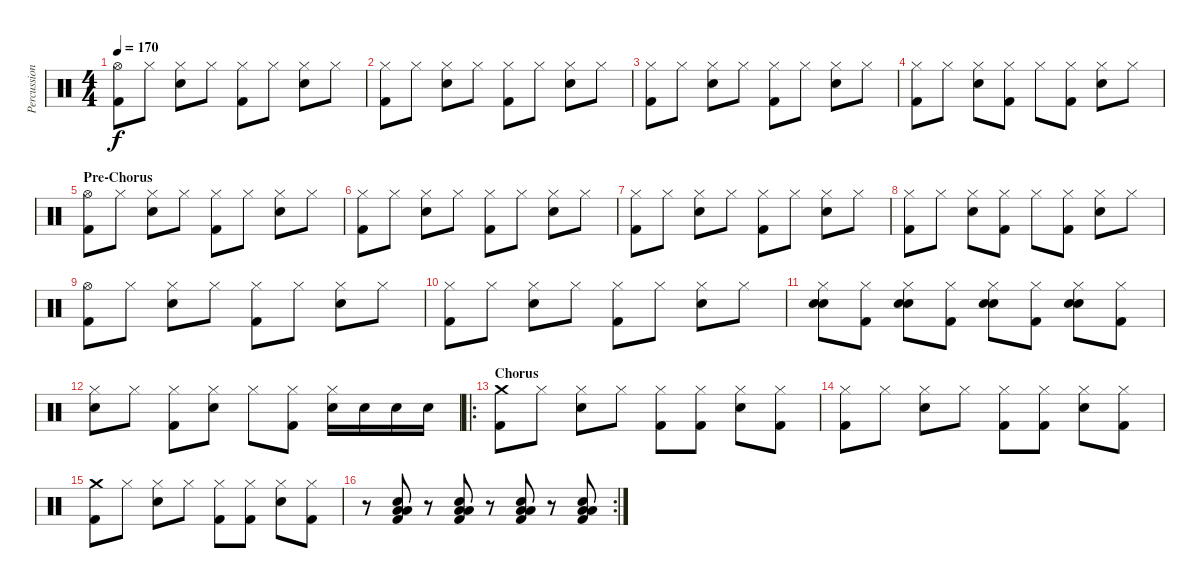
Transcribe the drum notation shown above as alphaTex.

\track ("Percussions" "Percussion") {instrument percussion}
\staff {score}
\articulation defaults
\ts (4 4)
\tempo 170
\clef neutral
\ks c
("Hi-Hat (open)" "Kick (hit) 2").8{dy f} "Hi-Hat (closed)".8 ("Hi-Hat (closed)" "Snare (hit) 2").8 "Hi-Hat (closed)".8 ("Hi-Hat (closed)" "Kick (hit) 2").8 "Hi-Hat (closed)".8 ("Hi-Hat (closed)" "Snare (hit) 2").8 "Hi-Hat (closed)".8 |
("Hi-Hat (closed)" "Kick (hit) 2").8 "Hi-Hat (closed)".8 ("Hi-Hat (closed)" "Snare (hit) 2").8 "Hi-Hat (closed)".8 ("Hi-Hat (closed)" "Kick (hit) 2").8 "Hi-Hat (closed)".8 ("Hi-Hat (closed)" "Snare (hit) 2").8 "Hi-Hat (closed)".8 |
("Hi-Hat (closed)" "Kick (hit) 2").8 "Hi-Hat (closed)".8 ("Hi-Hat (closed)" "Snare (hit) 2").8 "Hi-Hat (closed)".8 ("Hi-Hat (closed)" "Kick (hit) 2").8 "Hi-Hat (closed)".8 ("Hi-Hat (closed)" "Snare (hit) 2").8 "Hi-Hat (closed)".8 |
("Hi-Hat (closed)" "Kick (hit) 2").8 "Hi-Hat (closed)".8 ("Hi-Hat (closed)" "Snare (hit) 2").8 ("Hi-Hat (closed)" "Kick (hit) 2").8 "Hi-Hat (closed)".8 ("Hi-Hat (closed)" "Kick (hit) 2").8 ("Hi-Hat (closed)" "Snare (hit) 2").8 "Hi-Hat (closed)".8 |
\section ("" "Pre-Chorus")
("Hi-Hat (open)" "Kick (hit) 2").8 "Hi-Hat (closed)".8 ("Hi-Hat (closed)" "Snare (hit) 2").8 "Hi-Hat (closed)".8 ("Hi-Hat (closed)" "Kick (hit) 2").8 "Hi-Hat (closed)".8 ("Hi-Hat (closed)" "Snare (hit) 2").8 "Hi-Hat (closed)".8 |
("Hi-Hat (closed)" "Kick (hit) 2").8 "Hi-Hat (closed)".8 ("Hi-Hat (closed)" "Snare (hit) 2").8 "Hi-Hat (closed)".8 ("Hi-Hat (closed)" "Kick (hit) 2").8 "Hi-Hat (closed)".8 ("Hi-Hat (closed)" "Snare (hit) 2").8 "Hi-Hat (closed)".8 |
("Hi-Hat (closed)" "Kick (hit) 2").8 "Hi-Hat (closed)".8 ("Hi-Hat (closed)" "Snare (hit) 2").8 "Hi-Hat (closed)".8 ("Hi-Hat (closed)" "Kick (hit) 2").8 "Hi-Hat (closed)".8 ("Hi-Hat (closed)" "Snare (hit) 2").8 "Hi-Hat (closed)".8 |
("Hi-Hat (closed)" "Kick (hit) 2").8 "Hi-Hat (closed)".8 ("Hi-Hat (closed)" "Snare (hit) 2").8 ("Hi-Hat (closed)" "Kick (hit) 2").8 "Hi-Hat (closed)".8 ("Hi-Hat (closed)" "Kick (hit) 2").8 ("Hi-Hat (closed)" "Snare (hit) 2").8 "Hi-Hat (closed)".8 |
("Hi-Hat (open)" "Kick (hit) 2").8 "Hi-Hat (closed)".8 ("Hi-Hat (closed)" "Snare (hit) 2").8 "Hi-Hat (closed)".8 ("Hi-Hat (closed)" "Kick (hit) 2").8 "Hi-Hat (closed)".8 ("Hi-Hat (closed)" "Snare (hit) 2").8 "Hi-Hat (closed)".8 |
("Hi-Hat (closed)" "Kick (hit) 2").8 "Hi-Hat (closed)".8 ("Hi-Hat (closed)" "Snare (hit) 2").8 "Hi-Hat (closed)".8 ("Hi-Hat (closed)" "Kick (hit) 2").8 "Hi-Hat (closed)".8 ("Hi-Hat (closed)" "Snare (hit) 2").8 "Hi-Hat (closed)".8 |
("Hi-Hat (closed)" "Snare (hit) 2" "Snare (hit) 2").8{bu 60} ("Hi-Hat (closed)" "Kick (hit) 2").8 ("Hi-Hat (closed)" "Snare (hit) 2" "Snare (hit) 2").8{bu 60} ("Hi-Hat (closed)" "Kick (hit) 2").8 ("Hi-Hat (closed)" "Snare (hit) 2" "Snare (hit) 2").8{bu 60} ("Hi-Hat (closed)" "Kick (hit) 2").8 ("Hi-Hat (closed)" "Snare (hit) 2" "Snare (hit) 2").8{bu 60} ("Hi-Hat (closed)" "Kick (hit) 2").8 |
("Hi-Hat (closed)" "Snare (hit) 2").8 "Hi-Hat (closed)".8 ("Hi-Hat (closed)" "Kick (hit) 2").8 ("Hi-Hat (closed)" "Snare (hit) 2").8 "Hi-Hat (closed)".8 ("Hi-Hat (closed)" "Kick (hit) 2").8 ("Hi-Hat (closed)" "Snare (hit) 2").16 "Snare (hit) 2".16 "Snare (hit) 2".16 "Snare (hit) 2".16 |
\ro
\section ("" "Chorus")
("Crash medium (hit)" "Kick (hit) 2").8 "Hi-Hat (closed)".8 ("Hi-Hat (closed)" "Snare (hit) 2").8 "Hi-Hat (closed)".8 ("Hi-Hat (closed)" "Kick (hit) 2").8 ("Hi-Hat (closed)" "Kick (hit) 2").8 ("Hi-Hat (closed)" "Snare (hit) 2").8 ("Hi-Hat (closed)" "Kick (hit) 2").8 |
("Hi-Hat (closed)" "Kick (hit) 2").8 "Hi-Hat (closed)".8 ("Hi-Hat (closed)" "Snare (hit) 2").8 "Hi-Hat (closed)".8 ("Hi-Hat (closed)" "Kick (hit) 2").8 ("Hi-Hat (closed)" "Kick (hit) 2").8 ("Hi-Hat (closed)" "Snare (hit) 2").8 ("Hi-Hat (closed)" "Kick (hit) 2").8 |
("Crash medium (hit)" "Kick (hit) 2").8 "Hi-Hat (closed)".8 ("Hi-Hat (closed)" "Snare (hit) 2").8 "Hi-Hat (closed)".8 ("Hi-Hat (closed)" "Kick (hit) 2").8 ("Hi-Hat (closed)" "Kick (hit) 2").8 ("Hi-Hat (closed)" "Snare (hit) 2").8 ("Hi-Hat (closed)" "Kick (hit) 2").8 |
\rc 2
r.8 ("Low Floor Tom (hit)" "Low Tom (hit)" "Snare (hit) 2" "Kick (hit) 2").8 r.8 ("Low Floor Tom (hit)" "Low Tom (hit)" "Snare (hit) 2" "Kick (hit) 2").8 r.8 ("Low Floor Tom (hit)" "Low Tom (hit)" "Snare (hit) 2" "Kick (hit) 2").8 r.8 ("Low Floor Tom (hit)" "Low Tom (hit)" "Snare (hit) 2" "Kick (hit) 2").8
